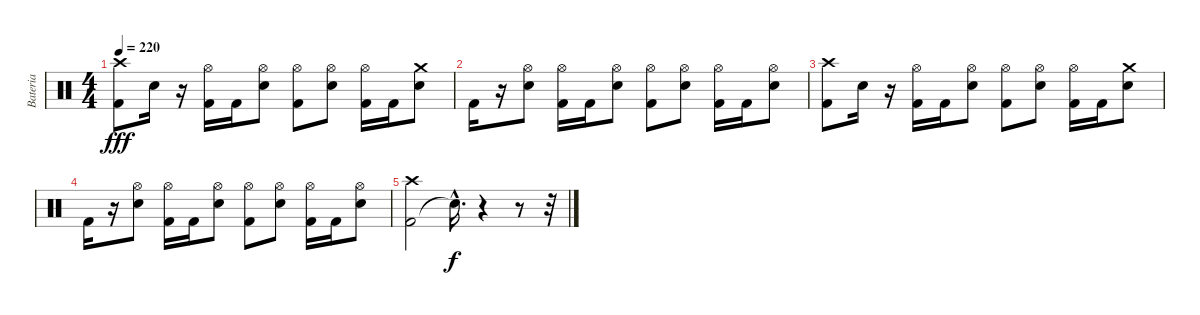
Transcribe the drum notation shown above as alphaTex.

\track ("Bateria" "Bateria") {instrument percussion}
\staff {score}
\articulation defaults
\ts (4 4)
\tempo 220
\clef neutral
\ks c
("Kick (hit) 2" "Crash high (hit)").8{dy fff} "Electric Snare (hit)".16 r.16 ("Kick (hit) 2" "Hi-Hat (open)").16 "Kick (hit) 2".16 ("Electric Snare (hit)" "Hi-Hat (open)").8 ("Kick (hit) 2" "Hi-Hat (open)").8 ("Electric Snare (hit)" "Hi-Hat (open)").8 ("Kick (hit) 2" "Hi-Hat (open)").16 "Kick (hit) 2".16 ("Electric Snare (hit)" "Crash medium (hit)").8 |
"Kick (hit) 2".16 r.16 ("Electric Snare (hit)" "Hi-Hat (open)").8 ("Kick (hit) 2" "Hi-Hat (open)").16 "Kick (hit) 2".16 ("Electric Snare (hit)" "Hi-Hat (open)").8 ("Kick (hit) 2" "Hi-Hat (open)").8 ("Electric Snare (hit)" "Hi-Hat (open)").8 ("Kick (hit) 2" "Hi-Hat (open)").16 "Kick (hit) 2".16 ("Electric Snare (hit)" "Hi-Hat (open)").8 |
("Kick (hit) 2" "Crash high (hit)").8 "Electric Snare (hit)".16 r.16 ("Kick (hit) 2" "Hi-Hat (open)").16 "Kick (hit) 2".16 ("Electric Snare (hit)" "Hi-Hat (open)").8 ("Kick (hit) 2" "Hi-Hat (open)").8 ("Electric Snare (hit)" "Hi-Hat (open)").8 ("Kick (hit) 2" "Hi-Hat (open)").16 "Kick (hit) 2".16 ("Electric Snare (hit)" "Crash medium (hit)").8 |
"Kick (hit) 2".16 r.16 ("Electric Snare (hit)" "Hi-Hat (open)").8 ("Kick (hit) 2" "Hi-Hat (open)").16 "Kick (hit) 2".16 ("Electric Snare (hit)" "Hi-Hat (open)").8 ("Kick (hit) 2" "Hi-Hat (open)").8 ("Electric Snare (hit)" "Hi-Hat (open)").8 ("Kick (hit) 2" "Hi-Hat (open)").16 "Kick (hit) 2".16 ("Electric Snare (hit)" "Hi-Hat (open)").8 |
("Kick (hit) 2" "Crash high (hit)").2 "Snare (hit)"{hac t}.16{d dy f} r.4 r.8 r.32
